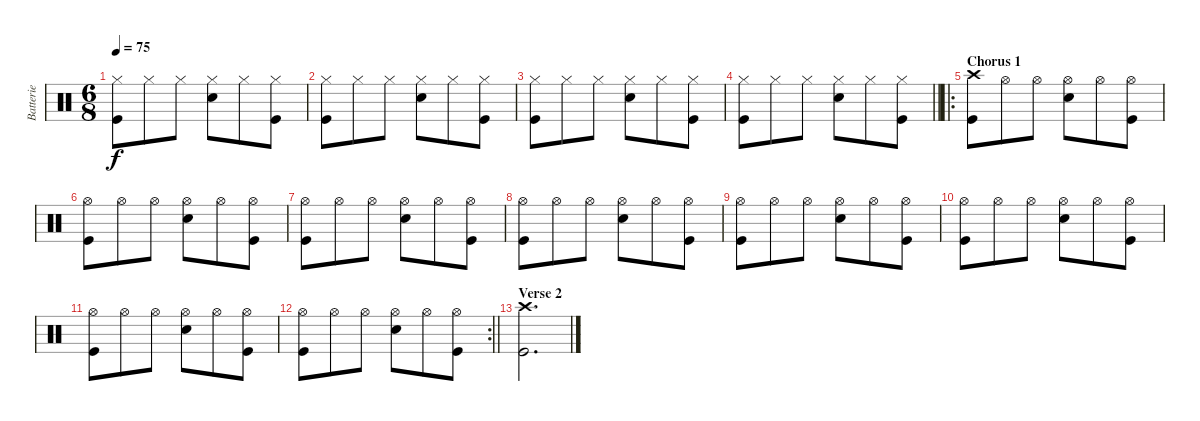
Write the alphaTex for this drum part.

\track ("Batterie" "Batterie") {instrument percussion}
\staff {score}
\articulation defaults
\ts (6 8)
\tempo 75
\clef neutral
\ks c
("Hi-Hat (closed)" "Kick (hit)").8{dy f} "Hi-Hat (closed)".8 "Hi-Hat (closed)".8 ("Snare (hit) 2" "Hi-Hat (closed)").8 "Hi-Hat (closed)".8 ("Kick (hit)" "Hi-Hat (closed)").8 |
("Hi-Hat (closed)" "Kick (hit)").8 "Hi-Hat (closed)".8 "Hi-Hat (closed)".8 ("Snare (hit) 2" "Hi-Hat (closed)").8 "Hi-Hat (closed)".8 ("Kick (hit)" "Hi-Hat (closed)").8 |
("Hi-Hat (closed)" "Kick (hit)").8 "Hi-Hat (closed)".8 "Hi-Hat (closed)".8 ("Snare (hit) 2" "Hi-Hat (closed)").8 "Hi-Hat (closed)".8 ("Kick (hit)" "Hi-Hat (closed)").8 |
\barLineRight lightlight
("Hi-Hat (closed)" "Kick (hit)").8 "Hi-Hat (closed)".8 "Hi-Hat (closed)".8 ("Snare (hit) 2" "Hi-Hat (closed)").8 "Hi-Hat (closed)".8 ("Kick (hit)" "Hi-Hat (closed)").8 |
\ro
\section ("" "Chorus 1")
("Kick (hit)" "Crash high (hit)").8 "Hi-Hat (open)".8 "Hi-Hat (open)".8 ("Electric Snare (hit)" "Hi-Hat (open)").8 "Hi-Hat (open)".8 ("Kick (hit)" "Hi-Hat (open)").8 |
("Hi-Hat (open)" "Kick (hit)").8 "Hi-Hat (open)".8 "Hi-Hat (open)".8 ("Electric Snare (hit)" "Hi-Hat (open)").8 "Hi-Hat (open)".8 ("Kick (hit)" "Hi-Hat (open)").8 |
("Hi-Hat (open)" "Kick (hit)").8 "Hi-Hat (open)".8 "Hi-Hat (open)".8 ("Electric Snare (hit)" "Hi-Hat (open)").8 "Hi-Hat (open)".8 ("Kick (hit)" "Hi-Hat (open)").8 |
("Hi-Hat (open)" "Kick (hit)").8 "Hi-Hat (open)".8 "Hi-Hat (open)".8 ("Electric Snare (hit)" "Hi-Hat (open)").8 "Hi-Hat (open)".8 ("Kick (hit)" "Hi-Hat (open)").8 |
("Hi-Hat (open)" "Kick (hit)").8 "Hi-Hat (open)".8 "Hi-Hat (open)".8 ("Electric Snare (hit)" "Hi-Hat (open)").8 "Hi-Hat (open)".8 ("Kick (hit)" "Hi-Hat (open)").8 |
("Hi-Hat (open)" "Kick (hit)").8 "Hi-Hat (open)".8 "Hi-Hat (open)".8 ("Electric Snare (hit)" "Hi-Hat (open)").8 "Hi-Hat (open)".8 ("Kick (hit)" "Hi-Hat (open)").8 |
("Hi-Hat (open)" "Kick (hit)").8 "Hi-Hat (open)".8 "Hi-Hat (open)".8 ("Electric Snare (hit)" "Hi-Hat (open)").8 "Hi-Hat (open)".8 ("Kick (hit)" "Hi-Hat (open)").8 |
\rc 2
\barLineRight lightlight
("Hi-Hat (open)" "Kick (hit)").8 "Hi-Hat (open)".8 "Hi-Hat (open)".8 ("Electric Snare (hit)" "Hi-Hat (open)").8 "Hi-Hat (open)".8 ("Kick (hit)" "Hi-Hat (open)").8 |
\section ("" "Verse 2")
("Crash high (hit)" "Kick (hit)").2{d}
